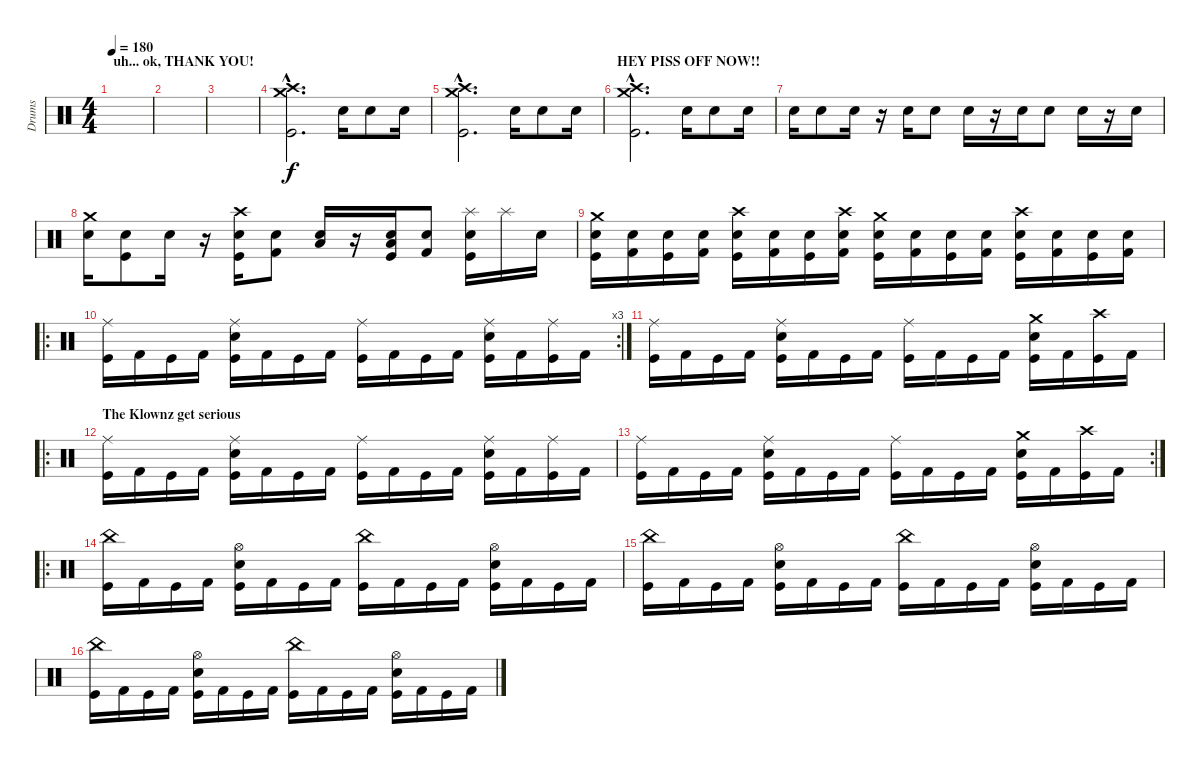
\track ("Drums" "Drums") {instrument percussion}
\staff {score}
\articulation defaults
\ts (4 4)
\section ("" "uh... ok, THANK YOU!")
\tempo 180
\clef neutral
\ks c
|
|
|
("Crash high (hit)"{hac} "Crash medium (hit)"{hac} "Kick (hit)"{hac}).2{d} "Electric Snare (hit)".16 "Electric Snare (hit)".8 "Electric Snare (hit)".16 |
("Crash high (hit)"{hac} "Crash medium (hit)"{hac} "Kick (hit)"{hac}).2{d} "Electric Snare (hit)".16 "Electric Snare (hit)".8 "Electric Snare (hit)".16 |
\section ("" "HEY PISS OFF NOW!!")
("Crash high (hit)"{hac} "Crash medium (hit)"{hac} "Kick (hit)"{hac}).2{d} "Electric Snare (hit)".16 "Electric Snare (hit)".8 "Electric Snare (hit)".16 |
"Electric Snare (hit)".16 "Electric Snare (hit)".8 "Electric Snare (hit)".16 r.16 "Electric Snare (hit)".16 "Electric Snare (hit)".8 "Electric Snare (hit)".16 r.16 "Electric Snare (hit)".16 "Electric Snare (hit)".8 "Electric Snare (hit)".16 r.16 "Electric Snare (hit)".16 |
("Crash medium (hit)" "Electric Snare (hit)").16 ("Electric Snare (hit)" "Kick (hit)").8 "Electric Snare (hit)".16 r.16 ("Crash high (hit)" "Electric Snare (hit)" "Kick (hit)").16 ("Electric Snare (hit)" "Kick (hit) 2").8 ("Low Floor Tom (hit)" "Electric Snare (hit)").16 r.16 ("Low Floor Tom (hit)" "Electric Snare (hit)" "Kick (hit)").16 ("Electric Snare (hit)" "Kick (hit) 2").8 ("Splash (hit)" "Electric Snare (hit)" "Kick (hit)").16 "Splash (hit)".16 "Electric Snare (hit)".16 |
("Crash medium (hit)" "Electric Snare (hit)" "Kick (hit)").16 ("Electric Snare (hit)" "Kick (hit) 2").16 ("Electric Snare (hit)" "Kick (hit)").16 ("Electric Snare (hit)" "Kick (hit) 2").16 ("Crash high (hit)" "Electric Snare (hit)" "Kick (hit)").16 ("Electric Snare (hit)" "Kick (hit) 2").16 ("Electric Snare (hit)" "Kick (hit)").16 ("Crash high (hit)" "Electric Snare (hit)" "Kick (hit) 2").16 ("Crash medium (hit)" "Electric Snare (hit)" "Kick (hit)").16 ("Electric Snare (hit)" "Kick (hit) 2").16 ("Electric Snare (hit)" "Kick (hit)").16 ("Electric Snare (hit)" "Kick (hit) 2").16 ("Crash high (hit)" "Electric Snare (hit)" "Kick (hit)").16 ("Electric Snare (hit)" "Kick (hit) 2").16 ("Electric Snare (hit)" "Kick (hit)").16 ("Electric Snare (hit)" "Kick (hit) 2").16 |
\ro
\rc 3
("Ride (middle)" "Kick (hit)").16 "Kick (hit) 2".16 "Kick (hit)".16 "Kick (hit) 2".16 ("Ride (middle)" "Electric Snare (hit)" "Kick (hit)").16 "Kick (hit) 2".16 "Kick (hit)".16 "Kick (hit) 2".16 ("Ride (middle)" "Kick (hit)").16 "Kick (hit) 2".16 "Kick (hit)".16 "Kick (hit) 2".16 ("Ride (middle)" "Electric Snare (hit)" "Kick (hit)").16 "Kick (hit) 2".16 ("Ride (middle)" "Kick (hit)").16 "Kick (hit) 2".16 |
("Ride (middle)" "Kick (hit)").16 "Kick (hit) 2".16 "Kick (hit)".16 "Kick (hit) 2".16 ("Ride (middle)" "Electric Snare (hit)" "Kick (hit)").16 "Kick (hit) 2".16 "Kick (hit)".16 "Kick (hit) 2".16 ("Ride (middle)" "Kick (hit)").16 "Kick (hit) 2".16 "Kick (hit)".16 "Kick (hit) 2".16 ("Crash medium (hit)" "Electric Snare (hit)" "Kick (hit)").16 "Kick (hit) 2".16 ("Crash high (hit)" "Kick (hit)").16 "Kick (hit) 2".16 |
\ro
\section ("" "The Klownz get serious")
("Ride (middle)" "Kick (hit)").16 "Kick (hit) 2".16 "Kick (hit)".16 "Kick (hit) 2".16 ("Ride (middle)" "Electric Snare (hit)" "Kick (hit)").16 "Kick (hit) 2".16 "Kick (hit)".16 "Kick (hit) 2".16 ("Ride (middle)" "Kick (hit)").16 "Kick (hit) 2".16 "Kick (hit)".16 "Kick (hit) 2".16 ("Ride (middle)" "Electric Snare (hit)" "Kick (hit)").16 "Kick (hit) 2".16 ("Ride (middle)" "Kick (hit)").16 "Kick (hit) 2".16 |
\rc 2
("Ride (middle)" "Kick (hit)").16 "Kick (hit) 2".16 "Kick (hit)".16 "Kick (hit) 2".16 ("Ride (middle)" "Electric Snare (hit)" "Kick (hit)").16 "Kick (hit) 2".16 "Kick (hit)".16 "Kick (hit) 2".16 ("Ride (middle)" "Kick (hit)").16 "Kick (hit) 2".16 "Kick (hit)".16 "Kick (hit) 2".16 ("Crash medium (hit)" "Electric Snare (hit)" "Kick (hit)").16 "Kick (hit) 2".16 ("Crash high (hit)" "Kick (hit)").16 "Kick (hit) 2".16 |
\ro
("China (hit)" "Kick (hit)").16 "Kick (hit) 2".16 "Kick (hit)".16 "Kick (hit) 2".16 ("Hi-Hat (open)" "Electric Snare (hit)" "Kick (hit)").16 "Kick (hit) 2".16 "Kick (hit)".16 "Kick (hit) 2".16 ("China (hit)" "Kick (hit)").16 "Kick (hit) 2".16 "Kick (hit)".16 "Kick (hit) 2".16 ("Hi-Hat (open)" "Electric Snare (hit)" "Kick (hit)").16 "Kick (hit) 2".16 "Kick (hit)".16 "Kick (hit) 2".16 |
("China (hit)" "Kick (hit)").16 "Kick (hit) 2".16 "Kick (hit)".16 "Kick (hit) 2".16 ("Hi-Hat (open)" "Electric Snare (hit)" "Kick (hit)").16 "Kick (hit) 2".16 "Kick (hit)".16 "Kick (hit) 2".16 ("China (hit)" "Kick (hit)").16 "Kick (hit) 2".16 "Kick (hit)".16 "Kick (hit) 2".16 ("Hi-Hat (open)" "Electric Snare (hit)" "Kick (hit)").16 "Kick (hit) 2".16 "Kick (hit)".16 "Kick (hit) 2".16 |
("China (hit)" "Kick (hit)").16 "Kick (hit) 2".16 "Kick (hit)".16 "Kick (hit) 2".16 ("Hi-Hat (open)" "Electric Snare (hit)" "Kick (hit)").16 "Kick (hit) 2".16 "Kick (hit)".16 "Kick (hit) 2".16 ("China (hit)" "Kick (hit)").16 "Kick (hit) 2".16 "Kick (hit)".16 "Kick (hit) 2".16 ("Hi-Hat (open)" "Electric Snare (hit)" "Kick (hit)").16 "Kick (hit) 2".16 "Kick (hit)".16 "Kick (hit) 2".16
